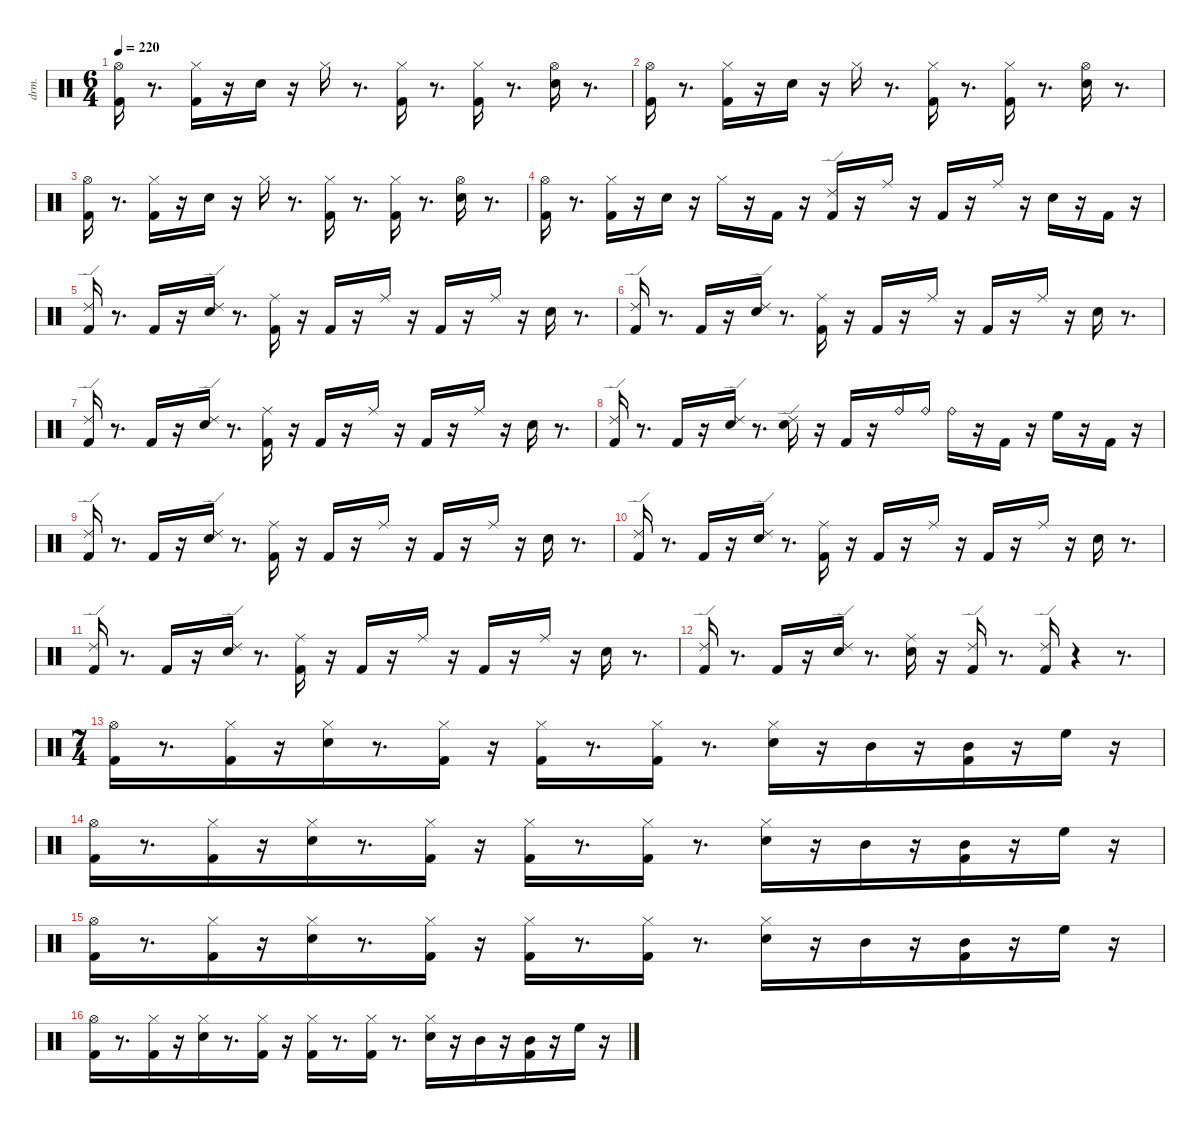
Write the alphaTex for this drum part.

\defaultSystemsLayout 4
\hideDynamics
\bracketExtendMode nobrackets
\otherSystemsTrackNameOrientation horizontal
\track ("EZdrummer 3" "drm.") {mute instrument percussion}
\staff {score}
\articulation defaults
\ts (6 4)
\tempo 220
\clef neutral
\ks c
("Kick (hit) 2" "Hi-Hat (open)"{acc #}).16{dy fff beam Down} r.8{d beam Down} ("Kick (hit) 2" "Hi-Hat (closed)"{acc #}).16{dy f beam Down} r.16{beam Down} "Snare (hit) 2".16{dy ff beam Down} r.16{beam Down} "Hi-Hat (closed)"{acc #}.16{beam Down} r.8{d beam Down} ("Kick (hit) 2" "Hi-Hat (closed)"{acc #}).16{beam Down} r.8{d beam Down} ("Kick (hit) 2" "Hi-Hat (closed)"{acc #}).16{dy f beam Down} r.8{d beam Down} ("Snare (hit) 2" "Hi-Hat (open)"{acc #}).16{dy ff beam Down} r.8{d beam Down} |
("Kick (hit) 2" "Hi-Hat (open)"{acc #}).16{dy fff beam Down} r.8{d beam Down} ("Kick (hit) 2" "Hi-Hat (closed)"{acc #}).16{dy f beam Down} r.16{beam Down} "Snare (hit) 2".16{dy ff beam Down} r.16{beam Down} "Hi-Hat (closed)"{acc #}.16{beam Down} r.8{d beam Down} ("Kick (hit) 2" "Hi-Hat (closed)"{acc #}).16{beam Down} r.8{d beam Down} ("Kick (hit) 2" "Hi-Hat (closed)"{acc #}).16{dy f beam Down} r.8{d beam Down} ("Snare (hit) 2" "Hi-Hat (open)"{acc #}).16{dy ff beam Down} r.8{d beam Down} |
("Kick (hit) 2" "Hi-Hat (open)"{acc #}).16{dy fff beam Down} r.8{d beam Down} ("Kick (hit) 2" "Hi-Hat (closed)"{acc #}).16{dy f beam Down} r.16{beam Down} "Snare (hit) 2".16{dy ff beam Down} r.16{beam Down} "Hi-Hat (closed)"{acc #}.16{beam Down} r.8{d beam Down} ("Kick (hit) 2" "Hi-Hat (closed)"{acc #}).16{beam Down} r.8{d beam Down} ("Kick (hit) 2" "Hi-Hat (closed)"{acc #}).16{dy f beam Down} r.8{d beam Down} ("Snare (hit) 2" "Hi-Hat (open)"{acc #}).16{dy ff beam Down} r.8{d beam Down} |
("Kick (hit) 2" "Hi-Hat (open)"{acc #}).16{dy fff beam Down} r.8{d beam Down} ("Kick (hit) 2" "Hi-Hat (closed)"{acc #}).16{dy f beam Down} r.16{beam Down} "Snare (hit) 2".16{dy ff beam Down} r.16{beam Down} "Hi-Hat (closed)"{acc #}.16{beam Down} r.16{beam Down} "Kick (hit) 2".16{dy mp beam Up} r.16{beam Up} ("Kick (hit) 2" "Ride (edge) 2").16{dy ff beam Up} r.16{beam Up} "Ride (middle)"{acc #}.16{dy p beam Down} r.16{beam Down} "Kick (hit) 2".16{dy f beam Up} r.16{beam Up} "Ride (middle)"{acc #}.16{dy ff beam Down} r.16{beam Down} "Snare (hit) 2".16{beam Down} r.16{beam Down} "Kick (hit) 2".16{dy mp beam Up} r.16{beam Up} |
("Kick (hit) 2" "Ride (edge) 2").16{dy fff beam Up} r.8{d beam Up} "Kick (hit) 2".16{dy f beam Up} r.16{beam Up} ("Snare (hit) 2" "Ride (edge) 2").16{dy ff beam Down} r.8{d beam Down} ("Kick (hit) 2" "Ride (middle)"{acc #}).16{dy mf beam Down} r.16{beam Down} "Kick (hit) 2".16{dy fff beam Up} r.16{beam Up} "Ride (middle)"{acc #}.16{dy f beam Down} r.16{beam Down} "Kick (hit) 2".16{beam Up} r.16{beam Up} "Ride (middle)"{acc #}.16{beam Down} r.16{beam Down} "Snare (hit) 2".16{dy fff beam Down} r.8{d beam Down} |
("Kick (hit) 2" "Ride (edge) 2").16{beam Up} r.8{d beam Up} "Kick (hit) 2".16{dy f beam Up} r.16{beam Up} ("Snare (hit) 2" "Ride (edge) 2").16{dy ff beam Down} r.8{d beam Down} ("Kick (hit) 2" "Ride (middle)"{acc #}).16{dy mf beam Down} r.16{beam Down} "Kick (hit) 2".16{dy fff beam Up} r.16{beam Up} "Ride (middle)"{acc #}.16{dy f beam Down} r.16{beam Down} "Kick (hit) 2".16{beam Up} r.16{beam Up} "Ride (middle)"{acc #}.16{beam Down} r.16{beam Down} "Snare (hit) 2".16{dy fff beam Down} r.8{d beam Down} |
("Kick (hit) 2" "Ride (edge) 2").16{beam Up} r.8{d beam Up} "Kick (hit) 2".16{dy f beam Up} r.16{beam Up} ("Snare (hit) 2" "Ride (edge) 2").16{dy ff beam Down} r.8{d beam Down} ("Kick (hit) 2" "Ride (middle)"{acc #}).16{dy mf beam Down} r.16{beam Down} "Kick (hit) 2".16{dy fff beam Up} r.16{beam Up} "Ride (middle)"{acc #}.16{dy f beam Down} r.16{beam Down} "Kick (hit) 2".16{beam Up} r.16{beam Up} "Ride (middle)"{acc #}.16{beam Down} r.16{beam Down} "Snare (hit) 2".16{dy fff beam Down} r.8{d beam Down} |
("Kick (hit) 2" "Ride (edge) 2").16{beam Up} r.8{d beam Up} "Kick (hit) 2".16{dy f beam Up} r.16{beam Up} ("Snare (hit) 2" "Ride (edge) 2").16{dy ff beam Down} r.8{d beam Down} ("Snare (hit) 2" "Ride (edge) 2").16{dy fff beam Down} r.16{beam Down} "Kick (hit) 2".16{beam Up} r.16{beam Up} "Ride (bell)".16{dy ff beam Down} "Ride (bell)".16{beam Down} "Ride (bell)".16{dy fff beam Down} r.16{beam Down} "Kick (hit) 2".16{dy f beam Up} r.16{beam Up} "High Floor Tom (hit)".16{dy ff beam Down} r.16{beam Down} "Kick (hit) 2".16{dy mf beam Up} r.16{beam Up} |
("Kick (hit) 2" "Ride (edge) 2").16{dy fff beam Up} r.8{d beam Up} "Kick (hit) 2".16{dy mf beam Up} r.16{beam Up} ("Snare (hit) 2" "Ride (edge) 2").16{dy ff beam Down} r.8{d beam Down} ("Kick (hit) 2" "Ride (middle)"{acc #}).16{dy mf beam Down} r.16{beam Down} "Kick (hit) 2".16{dy fff beam Up} r.16{beam Up} "Ride (middle)"{acc #}.16{dy f beam Down} r.16{beam Down} "Kick (hit) 2".16{beam Up} r.16{beam Up} "Ride (middle)"{acc #}.16{beam Down} r.16{beam Down} "Snare (hit) 2".16{dy fff beam Down} r.8{d beam Down} |
("Kick (hit) 2" "Ride (edge) 2").16{beam Up} r.8{d beam Up} "Kick (hit) 2".16{dy f beam Up} r.16{beam Up} ("Snare (hit) 2" "Ride (edge) 2").16{dy ff beam Down} r.8{d beam Down} ("Kick (hit) 2" "Ride (middle)"{acc #}).16{dy mf beam Down} r.16{beam Down} "Kick (hit) 2".16{dy fff beam Up} r.16{beam Up} "Ride (middle)"{acc #}.16{dy f beam Down} r.16{beam Down} "Kick (hit) 2".16{beam Up} r.16{beam Up} "Ride (middle)"{acc #}.16{beam Down} r.16{beam Down} "Snare (hit) 2".16{dy fff beam Down} r.8{d beam Down} |
("Kick (hit) 2" "Ride (edge) 2").16{beam Up} r.8{d beam Up} "Kick (hit) 2".16{dy f beam Up} r.16{beam Up} ("Snare (hit) 2" "Ride (edge) 2").16{dy ff beam Down} r.8{d beam Down} ("Kick (hit) 2" "Ride (middle)"{acc #}).16{dy mf beam Down} r.16{beam Down} "Kick (hit) 2".16{dy fff beam Up} r.16{beam Up} "Ride (middle)"{acc #}.16{dy f beam Down} r.16{beam Down} "Kick (hit) 2".16{beam Up} r.16{beam Up} "Ride (middle)"{acc #}.16{beam Down} r.16{beam Down} "Snare (hit) 2".16{dy fff beam Down} r.8{d beam Down} |
("Kick (hit) 2" "Ride (edge) 2").16{beam Up} r.8{d beam Up} "Kick (hit) 2".16{dy f beam Up} r.16{beam Up} ("Snare (hit) 2" "Ride (edge) 2").16{dy ff beam Down} r.8{d beam Down} ("Snare (hit) 2" "Ride (middle)"{acc #}).16{dy fff beam Down} r.16{beam Down} ("Kick (hit) 2" "Ride (edge) 2").16{dy ff beam Up} r.8{d beam Up} ("Kick (hit) 2" "Ride (edge) 2").16{dy fff beam Up} r.4{beam Up} r.8{d beam Up} |
\ts (7 4)
\beaming (8 6 4 4)
("Kick (hit) 2" "Hi-Hat (open)"{acc #}).16{beam Down} r.8{d beam Down} ("Kick (hit) 2" "Hi-Hat (closed)"{acc #}).16{dy f beam Down} r.16{beam Down} ("Snare (hit) 2" "Hi-Hat (closed)"{acc #}).16{dy ff beam Down} r.8{d beam Down} ("Kick (hit) 2" "Hi-Hat (closed)"{acc #}).16{dy f beam Down} r.16{beam Down} ("Kick (hit) 2" "Hi-Hat (closed)"{acc #}).16{dy ff beam Down} r.8{d beam Down} ("Kick (hit) 2" "Hi-Hat (closed)"{acc #}).16{dy f beam Down} r.8{d beam Down} ("Snare (hit) 2" "Hi-Hat (closed)"{acc #}).16{dy fff beam Down} r.16{beam Down} "Mid Tom (hit)".16{dy f beam Down} r.16{beam Down} ("Kick (hit) 2" "Mid Tom (hit)").16{beam Up} r.16{beam Up} "High Floor Tom (hit)".16{beam Down} r.16{beam Down} |
("Kick (hit) 2" "Hi-Hat (open)"{acc #}).16{dy fff beam Down} r.8{d beam Down} ("Kick (hit) 2" "Hi-Hat (closed)"{acc #}).16{dy f beam Down} r.16{beam Down} ("Snare (hit) 2" "Hi-Hat (closed)"{acc #}).16{dy ff beam Down} r.8{d beam Down} ("Kick (hit) 2" "Hi-Hat (closed)"{acc #}).16{dy f beam Down} r.16{beam Down} ("Kick (hit) 2" "Hi-Hat (closed)"{acc #}).16{dy ff beam Down} r.8{d beam Down} ("Kick (hit) 2" "Hi-Hat (closed)"{acc #}).16{dy f beam Down} r.8{d beam Down} ("Snare (hit) 2" "Hi-Hat (closed)"{acc #}).16{dy fff beam Down} r.16{beam Down} "Mid Tom (hit)".16{dy f beam Down} r.16{beam Down} ("Kick (hit) 2" "Mid Tom (hit)").16{beam Up} r.16{beam Up} "High Floor Tom (hit)".16{beam Down} r.16{beam Down} |
("Kick (hit) 2" "Hi-Hat (open)"{acc #}).16{dy fff beam Down} r.8{d beam Down} ("Kick (hit) 2" "Hi-Hat (closed)"{acc #}).16{dy f beam Down} r.16{beam Down} ("Snare (hit) 2" "Hi-Hat (closed)"{acc #}).16{dy ff beam Down} r.8{d beam Down} ("Kick (hit) 2" "Hi-Hat (closed)"{acc #}).16{dy f beam Down} r.16{beam Down} ("Kick (hit) 2" "Hi-Hat (closed)"{acc #}).16{dy ff beam Down} r.8{d beam Down} ("Kick (hit) 2" "Hi-Hat (closed)"{acc #}).16{dy f beam Down} r.8{d beam Down} ("Snare (hit) 2" "Hi-Hat (closed)"{acc #}).16{dy fff beam Down} r.16{beam Down} "Mid Tom (hit)".16{dy f beam Down} r.16{beam Down} ("Kick (hit) 2" "Mid Tom (hit)").16{beam Up} r.16{beam Up} "High Floor Tom (hit)".16{beam Down} r.16{beam Down} |
("Kick (hit) 2" "Hi-Hat (open)"{acc #}).16{dy fff beam Down} r.8{d beam Down} ("Kick (hit) 2" "Hi-Hat (closed)"{acc #}).16{dy f beam Down} r.16{beam Down} ("Snare (hit) 2" "Hi-Hat (closed)"{acc #}).16{dy ff beam Down} r.8{d beam Down} ("Kick (hit) 2" "Hi-Hat (closed)"{acc #}).16{dy f beam Down} r.16{beam Down} ("Kick (hit) 2" "Hi-Hat (closed)"{acc #}).16{dy ff beam Down} r.8{d beam Down} ("Kick (hit) 2" "Hi-Hat (closed)"{acc #}).16{dy f beam Down} r.8{d beam Down} ("Snare (hit) 2" "Hi-Hat (closed)"{acc #}).16{dy fff beam Down} r.16{beam Down} "Mid Tom (hit)".16{dy f beam Down} r.16{beam Down} ("Kick (hit) 2" "Mid Tom (hit)").16{beam Up} r.16{beam Up} "High Floor Tom (hit)".16{beam Down} r.16{beam Down}
